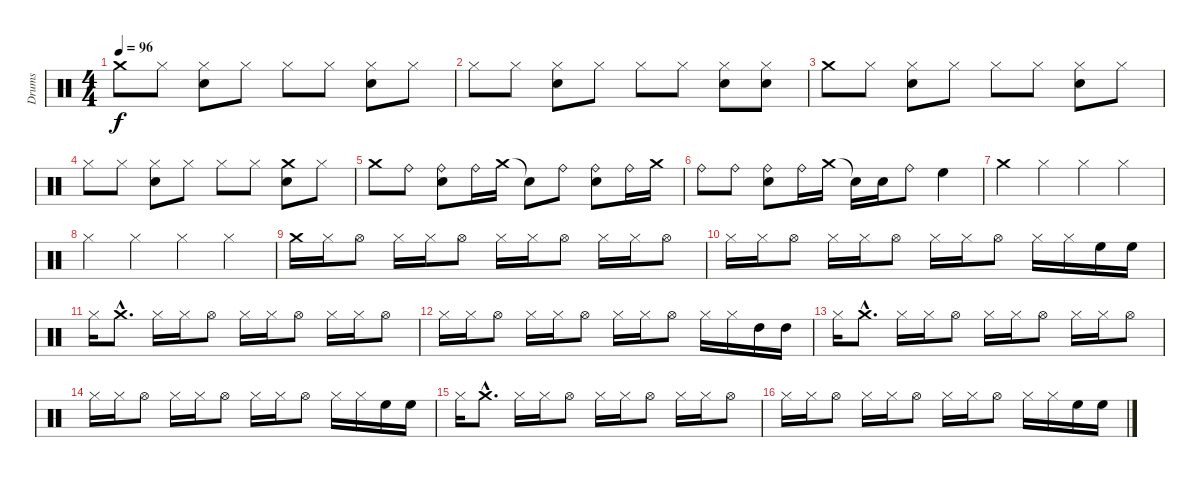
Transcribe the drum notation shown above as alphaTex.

\track ("Drums" "Drums") {instrument percussion}
\staff {score}
\articulation defaults
\ts (4 4)
\tempo 96
\clef neutral
\ks c "Crash medium (hit)".8{dy f} "Hi-Hat (closed)".8
("Hi-Hat (closed)" "Electric Snare (hit)").8 "Hi-Hat (closed)".8 "Hi-Hat (closed)".8 "Hi-Hat (closed)".8 ("Hi-Hat (closed)" "Electric Snare (hit)").8 "Hi-Hat (closed)".8 |
"Hi-Hat (closed)".8 "Hi-Hat (closed)".8 ("Hi-Hat (closed)" "Electric Snare (hit)").8 "Hi-Hat (closed)".8 "Hi-Hat (closed)".8 "Hi-Hat (closed)".8 ("Hi-Hat (closed)" "Electric Snare (hit)").8 ("Hi-Hat (closed)" "Electric Snare (hit)").8 |
"Crash medium (hit)".8 "Hi-Hat (closed)".8 ("Hi-Hat (closed)" "Electric Snare (hit)").8 "Hi-Hat (closed)".8 "Hi-Hat (closed)".8 "Hi-Hat (closed)".8 ("Hi-Hat (closed)" "Electric Snare (hit)").8 "Hi-Hat (closed)".8 |
"Hi-Hat (closed)".8 "Hi-Hat (closed)".8 ("Hi-Hat (closed)" "Electric Snare (hit)").8 "Hi-Hat (closed)".8 "Hi-Hat (closed)".8 "Hi-Hat (closed)".8 ("Crash medium (hit)" "Electric Snare (hit)").8 "Hi-Hat (closed)".8 |
"Crash medium (hit)".8 "Ride (bell)".8 ("Ride (bell)" "Electric Snare (hit)").8 "Ride (bell)".16 "Crash medium (hit)".16 "Snare (hit)"{t}.8 "Ride (bell)".8 ("Ride (bell)" "Electric Snare (hit)").8 "Ride (bell)".16 "Crash medium (hit)".16 |
"Ride (bell)".8 "Ride (bell)".8 ("Ride (bell)" "Electric Snare (hit)").8 "Ride (bell)".16 "Crash medium (hit)".16 "Snare (hit)"{t}.16 "Electric Snare (hit)".16 "Ride (bell)".8 "High Floor Tom (hit)".4 |
"Crash medium (hit)".4 "Hi-Hat (closed)".4 "Hi-Hat (closed)".4 "Hi-Hat (closed)".4 |
"Hi-Hat (closed)".4 "Hi-Hat (closed)".4 "Hi-Hat (closed)".4 "Hi-Hat (closed)".4 |
"Crash medium (hit)".16 "Hi-Hat (closed)".16 "Hi-Hat (open)".8 "Hi-Hat (closed)".16 "Hi-Hat (closed)".16 "Hi-Hat (open)".8 "Hi-Hat (closed)".16 "Hi-Hat (closed)".16 "Hi-Hat (open)".8 "Hi-Hat (closed)".16 "Hi-Hat (closed)".16 "Hi-Hat (open)".8 |
"Hi-Hat (closed)".16 "Hi-Hat (closed)".16 "Hi-Hat (open)".8 "Hi-Hat (closed)".16 "Hi-Hat (closed)".16 "Hi-Hat (open)".8 "Hi-Hat (closed)".16 "Hi-Hat (closed)".16 "Hi-Hat (open)".8 "Hi-Hat (closed)".16 "Hi-Hat (closed)".16 "High Floor Tom (hit)".16 "High Floor Tom (hit)".16 |
"Hi-Hat (closed)".16 "Crash medium (hit)"{hac}.8{d} "Hi-Hat (closed)".16 "Hi-Hat (closed)".16 "Hi-Hat (open)".8 "Hi-Hat (closed)".16 "Hi-Hat (closed)".16 "Hi-Hat (open)".8 "Hi-Hat (closed)".16 "Hi-Hat (closed)".16 "Hi-Hat (open)".8 |
"Hi-Hat (closed)".16 "Hi-Hat (closed)".16 "Hi-Hat (open)".8 "Hi-Hat (closed)".16 "Hi-Hat (closed)".16 "Hi-Hat (open)".8 "Hi-Hat (closed)".16 "Hi-Hat (closed)".16 "Hi-Hat (open)".8 "Hi-Hat (closed)".16 "Hi-Hat (closed)".16 "High Tom (hit)".16 "High Tom (hit)".16 |
"Hi-Hat (closed)".16 "Crash medium (hit)"{hac}.8{d} "Hi-Hat (closed)".16 "Hi-Hat (closed)".16 "Hi-Hat (open)".8 "Hi-Hat (closed)".16 "Hi-Hat (closed)".16 "Hi-Hat (open)".8 "Hi-Hat (closed)".16 "Hi-Hat (closed)".16 "Hi-Hat (open)".8 |
"Hi-Hat (closed)".16 "Hi-Hat (closed)".16 "Hi-Hat (open)".8 "Hi-Hat (closed)".16 "Hi-Hat (closed)".16 "Hi-Hat (open)".8 "Hi-Hat (closed)".16 "Hi-Hat (closed)".16 "Hi-Hat (open)".8 "Hi-Hat (closed)".16 "Hi-Hat (closed)".16 "High Floor Tom (hit)".16 "High Floor Tom (hit)".16 |
"Hi-Hat (closed)".16 "Crash medium (hit)"{hac}.8{d} "Hi-Hat (closed)".16 "Hi-Hat (closed)".16 "Hi-Hat (open)".8 "Hi-Hat (closed)".16 "Hi-Hat (closed)".16 "Hi-Hat (open)".8 "Hi-Hat (closed)".16 "Hi-Hat (closed)".16 "Hi-Hat (open)".8 |
"Hi-Hat (closed)".16 "Hi-Hat (closed)".16 "Hi-Hat (open)".8 "Hi-Hat (closed)".16 "Hi-Hat (closed)".16 "Hi-Hat (open)".8 "Hi-Hat (closed)".16 "Hi-Hat (closed)".16 "Hi-Hat (open)".8 "Hi-Hat (closed)".16 "Hi-Hat (closed)".16 "High Floor Tom (hit)".16 "High Floor Tom (hit)".16
